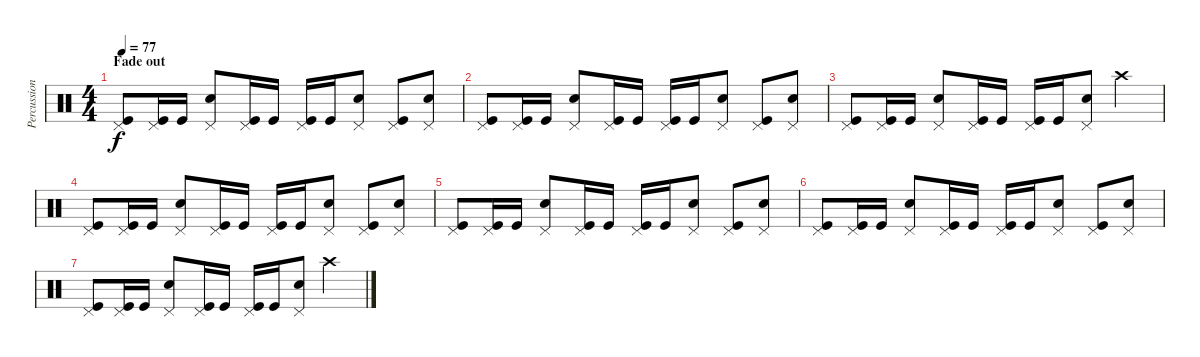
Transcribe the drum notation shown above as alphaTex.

\track ("Percussions" "Percussion") {instrument percussion}
\staff {score}
\articulation defaults
\ts (4 4)
\section ("" "Fade out")
\tempo 77
\clef neutral
\ks c
("Pedal Hi-Hat (hit)" "Kick (hit)").8{dy f volume 14} ("Pedal Hi-Hat (hit)" "Kick (hit)").16 "Kick (hit)".16 ("Pedal Hi-Hat (hit)" "Electric Snare (hit)").8 ("Pedal Hi-Hat (hit)" "Kick (hit)").16 "Kick (hit)".16 ("Pedal Hi-Hat (hit)" "Kick (hit)").16 "Kick (hit)".16 ("Pedal Hi-Hat (hit)" "Electric Snare (hit)").8 ("Pedal Hi-Hat (hit)" "Kick (hit)").8 ("Pedal Hi-Hat (hit)" "Electric Snare (hit)").8 |
("Pedal Hi-Hat (hit)" "Kick (hit)").8{volume 14} ("Pedal Hi-Hat (hit)" "Kick (hit)").16 "Kick (hit)".16 ("Pedal Hi-Hat (hit)" "Electric Snare (hit)").8 ("Pedal Hi-Hat (hit)" "Kick (hit)").16 "Kick (hit)".16 ("Pedal Hi-Hat (hit)" "Kick (hit)").16 "Kick (hit)".16 ("Pedal Hi-Hat (hit)" "Electric Snare (hit)").8 ("Pedal Hi-Hat (hit)" "Kick (hit)").8 ("Pedal Hi-Hat (hit)" "Electric Snare (hit)").8 |
("Pedal Hi-Hat (hit)" "Kick (hit)").8{volume 14} ("Pedal Hi-Hat (hit)" "Kick (hit)").16 "Kick (hit)".16 ("Pedal Hi-Hat (hit)" "Electric Snare (hit)").8 ("Pedal Hi-Hat (hit)" "Kick (hit)").16 "Kick (hit)".16 ("Pedal Hi-Hat (hit)" "Kick (hit)").16 "Kick (hit)".16 ("Pedal Hi-Hat (hit)" "Electric Snare (hit)").8 "Crash high (hit)".4 |
("Pedal Hi-Hat (hit)" "Kick (hit)").8{volume 14} ("Pedal Hi-Hat (hit)" "Kick (hit)").16 "Kick (hit)".16 ("Pedal Hi-Hat (hit)" "Electric Snare (hit)").8 ("Pedal Hi-Hat (hit)" "Kick (hit)").16 "Kick (hit)".16 ("Pedal Hi-Hat (hit)" "Kick (hit)").16 "Kick (hit)".16 ("Pedal Hi-Hat (hit)" "Electric Snare (hit)").8 ("Pedal Hi-Hat (hit)" "Kick (hit)").8 ("Pedal Hi-Hat (hit)" "Electric Snare (hit)").8 |
("Pedal Hi-Hat (hit)" "Kick (hit)").8{volume 14} ("Pedal Hi-Hat (hit)" "Kick (hit)").16 "Kick (hit)".16 ("Pedal Hi-Hat (hit)" "Electric Snare (hit)").8 ("Pedal Hi-Hat (hit)" "Kick (hit)").16 "Kick (hit)".16 ("Pedal Hi-Hat (hit)" "Kick (hit)").16 "Kick (hit)".16 ("Pedal Hi-Hat (hit)" "Electric Snare (hit)").8 ("Pedal Hi-Hat (hit)" "Kick (hit)").8 ("Pedal Hi-Hat (hit)" "Electric Snare (hit)").8 |
("Pedal Hi-Hat (hit)" "Kick (hit)").8{volume 14} ("Pedal Hi-Hat (hit)" "Kick (hit)").16 "Kick (hit)".16 ("Pedal Hi-Hat (hit)" "Electric Snare (hit)").8 ("Pedal Hi-Hat (hit)" "Kick (hit)").16 "Kick (hit)".16 ("Pedal Hi-Hat (hit)" "Kick (hit)").16 "Kick (hit)".16 ("Pedal Hi-Hat (hit)" "Electric Snare (hit)").8 ("Pedal Hi-Hat (hit)" "Kick (hit)").8 ("Pedal Hi-Hat (hit)" "Electric Snare (hit)").8 |
("Pedal Hi-Hat (hit)" "Kick (hit)").8{volume 14} ("Pedal Hi-Hat (hit)" "Kick (hit)").16 "Kick (hit)".16 ("Pedal Hi-Hat (hit)" "Electric Snare (hit)").8 ("Pedal Hi-Hat (hit)" "Kick (hit)").16 "Kick (hit)".16 ("Pedal Hi-Hat (hit)" "Kick (hit)").16 "Kick (hit)".16 ("Pedal Hi-Hat (hit)" "Electric Snare (hit)").8 "Crash high (hit)".4
